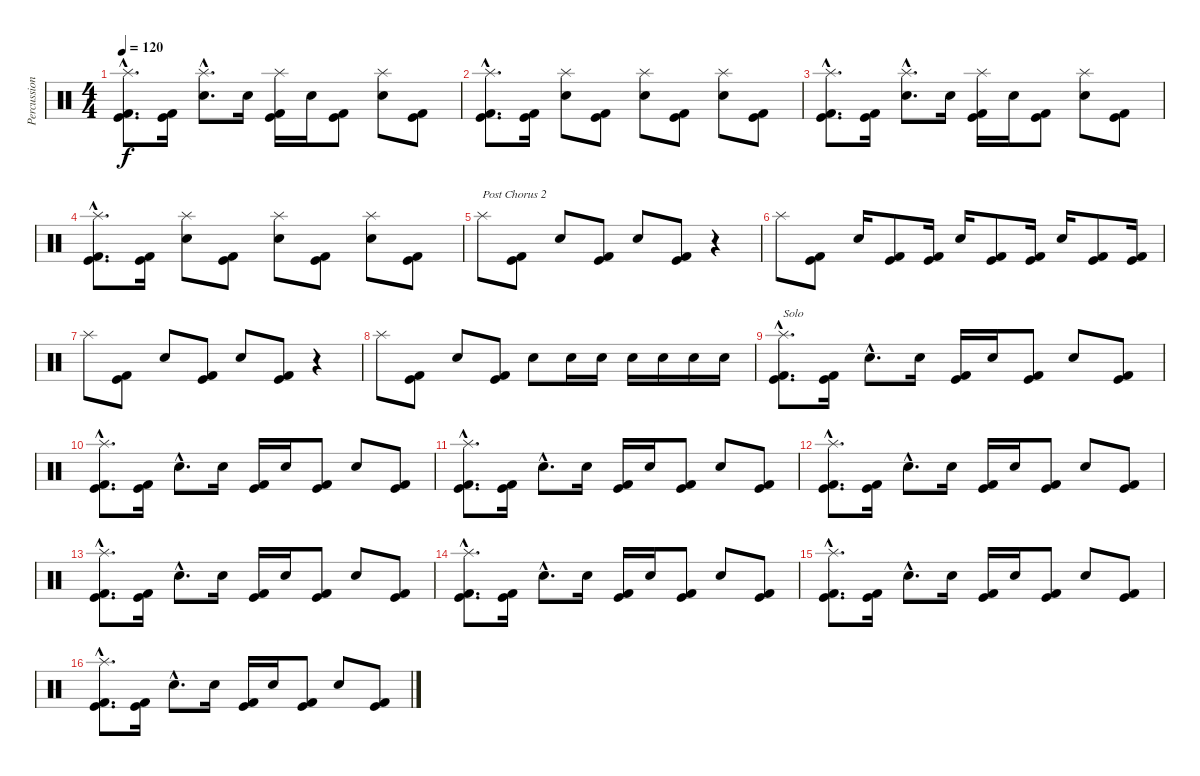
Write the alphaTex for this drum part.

\track ("Percussion" "Percussion") {instrument percussion}
\staff {score}
\articulation defaults
\ts (4 4)
\tempo 120
\clef neutral
\ks c
("Splash (hit)"{hac} "Kick (hit)"{hac} "Kick (hit) 2"{hac}).8{d dy f} ("Kick (hit)" "Kick (hit) 2").16 ("Splash (hit)"{hac} "Snare (hit) 2"{hac}).8{d} "Snare (hit) 2".16 ("Splash (hit)" "Kick (hit)" "Kick (hit) 2").16 "Snare (hit) 2".16 ("Kick (hit)" "Kick (hit) 2").8 ("Splash (hit)" "Snare (hit) 2").8 ("Kick (hit)" "Kick (hit) 2").8 |
("Splash (hit)"{hac} "Kick (hit)"{hac} "Kick (hit) 2"{hac}).8{d} ("Kick (hit)" "Kick (hit) 2").16 ("Splash (hit)" "Snare (hit) 2").8 ("Kick (hit)" "Kick (hit) 2").8 ("Splash (hit)" "Snare (hit) 2").8 ("Kick (hit)" "Kick (hit) 2").8 ("Splash (hit)" "Snare (hit) 2").8 ("Kick (hit)" "Kick (hit) 2").8 |
("Splash (hit)"{hac} "Kick (hit)"{hac} "Kick (hit) 2"{hac}).8{d} ("Kick (hit)" "Kick (hit) 2").16 ("Splash (hit)"{hac} "Snare (hit) 2"{hac}).8{d} "Snare (hit) 2".16 ("Splash (hit)" "Kick (hit)" "Kick (hit) 2").16 "Snare (hit) 2".16 ("Kick (hit)" "Kick (hit) 2").8 ("Splash (hit)" "Snare (hit) 2").8 ("Kick (hit)" "Kick (hit) 2").8 |
("Splash (hit)"{hac} "Kick (hit)"{hac} "Kick (hit) 2"{hac}).8{d} ("Kick (hit)" "Kick (hit) 2").16 ("Splash (hit)" "Snare (hit) 2").8 ("Kick (hit)" "Kick (hit) 2").8 ("Splash (hit)" "Snare (hit) 2").8 ("Kick (hit)" "Kick (hit) 2").8 ("Splash (hit)" "Snare (hit) 2").8 ("Kick (hit)" "Kick (hit) 2").8 |
"Splash (hit)".8{txt "Post Chorus 2"} ("Kick (hit)" "Kick (hit) 2").8 "Snare (hit) 2".8 ("Kick (hit)" "Kick (hit) 2").8 "Snare (hit) 2".8 ("Kick (hit)" "Kick (hit) 2").8 r.4 |
"Splash (hit)".8 ("Kick (hit)" "Kick (hit) 2").8 "Snare (hit) 2".16 ("Kick (hit)" "Kick (hit) 2").8 ("Kick (hit)" "Kick (hit) 2").16 "Snare (hit) 2".16 ("Kick (hit)" "Kick (hit) 2").8 ("Kick (hit)" "Kick (hit) 2").16 "Snare (hit) 2".16 ("Kick (hit)" "Kick (hit) 2").8 ("Kick (hit)" "Kick (hit) 2").16 |
"Splash (hit)".8 ("Kick (hit)" "Kick (hit) 2").8 "Snare (hit) 2".8 ("Kick (hit)" "Kick (hit) 2").8 "Snare (hit) 2".8 ("Kick (hit)" "Kick (hit) 2").8 r.4 |
"Splash (hit)".8 ("Kick (hit)" "Kick (hit) 2").8 "Snare (hit) 2".8 ("Kick (hit)" "Kick (hit) 2").8 "Snare (hit) 2".8 "Snare (hit) 2".16 "Snare (hit) 2".16 "Snare (hit) 2".16 "Snare (hit) 2".16 "Snare (hit) 2".16 "Snare (hit) 2".16 |
("Splash (hit)"{hac} "Kick (hit)"{hac} "Kick (hit) 2"{hac}).8{d txt "Solo"} ("Kick (hit)" "Kick (hit) 2").16 "Snare (hit) 2"{hac}.8{d} "Snare (hit) 2".16 ("Kick (hit)" "Kick (hit) 2").16 "Snare (hit) 2".16 ("Kick (hit)" "Kick (hit) 2").8 "Snare (hit) 2".8 ("Kick (hit)" "Kick (hit) 2").8 |
("Splash (hit)"{hac} "Kick (hit)"{hac} "Kick (hit) 2"{hac}).8{d} ("Kick (hit)" "Kick (hit) 2").16 "Snare (hit) 2"{hac}.8{d} "Snare (hit) 2".16 ("Kick (hit)" "Kick (hit) 2").16 "Snare (hit) 2".16 ("Kick (hit)" "Kick (hit) 2").8 "Snare (hit) 2".8 ("Kick (hit)" "Kick (hit) 2").8 |
("Splash (hit)"{hac} "Kick (hit)"{hac} "Kick (hit) 2"{hac}).8{d} ("Kick (hit)" "Kick (hit) 2").16 "Snare (hit) 2"{hac}.8{d} "Snare (hit) 2".16 ("Kick (hit)" "Kick (hit) 2").16 "Snare (hit) 2".16 ("Kick (hit)" "Kick (hit) 2").8 "Snare (hit) 2".8 ("Kick (hit)" "Kick (hit) 2").8 |
("Splash (hit)"{hac} "Kick (hit)"{hac} "Kick (hit) 2"{hac}).8{d} ("Kick (hit)" "Kick (hit) 2").16 "Snare (hit) 2"{hac}.8{d} "Snare (hit) 2".16 ("Kick (hit)" "Kick (hit) 2").16 "Snare (hit) 2".16 ("Kick (hit)" "Kick (hit) 2").8 "Snare (hit) 2".8 ("Kick (hit)" "Kick (hit) 2").8 |
("Splash (hit)"{hac} "Kick (hit)"{hac} "Kick (hit) 2"{hac}).8{d} ("Kick (hit)" "Kick (hit) 2").16 "Snare (hit) 2"{hac}.8{d} "Snare (hit) 2".16 ("Kick (hit)" "Kick (hit) 2").16 "Snare (hit) 2".16 ("Kick (hit)" "Kick (hit) 2").8 "Snare (hit) 2".8 ("Kick (hit)" "Kick (hit) 2").8 |
("Splash (hit)"{hac} "Kick (hit)"{hac} "Kick (hit) 2"{hac}).8{d} ("Kick (hit)" "Kick (hit) 2").16 "Snare (hit) 2"{hac}.8{d} "Snare (hit) 2".16 ("Kick (hit)" "Kick (hit) 2").16 "Snare (hit) 2".16 ("Kick (hit)" "Kick (hit) 2").8 "Snare (hit) 2".8 ("Kick (hit)" "Kick (hit) 2").8 |
("Splash (hit)"{hac} "Kick (hit)"{hac} "Kick (hit) 2"{hac}).8{d} ("Kick (hit)" "Kick (hit) 2").16 "Snare (hit) 2"{hac}.8{d} "Snare (hit) 2".16 ("Kick (hit)" "Kick (hit) 2").16 "Snare (hit) 2".16 ("Kick (hit)" "Kick (hit) 2").8 "Snare (hit) 2".8 ("Kick (hit)" "Kick (hit) 2").8 |
("Splash (hit)"{hac} "Kick (hit)"{hac} "Kick (hit) 2"{hac}).8{d} ("Kick (hit)" "Kick (hit) 2").16 "Snare (hit) 2"{hac}.8{d} "Snare (hit) 2".16 ("Kick (hit)" "Kick (hit) 2").16 "Snare (hit) 2".16 ("Kick (hit)" "Kick (hit) 2").8 "Snare (hit) 2".8 ("Kick (hit)" "Kick (hit) 2").8
